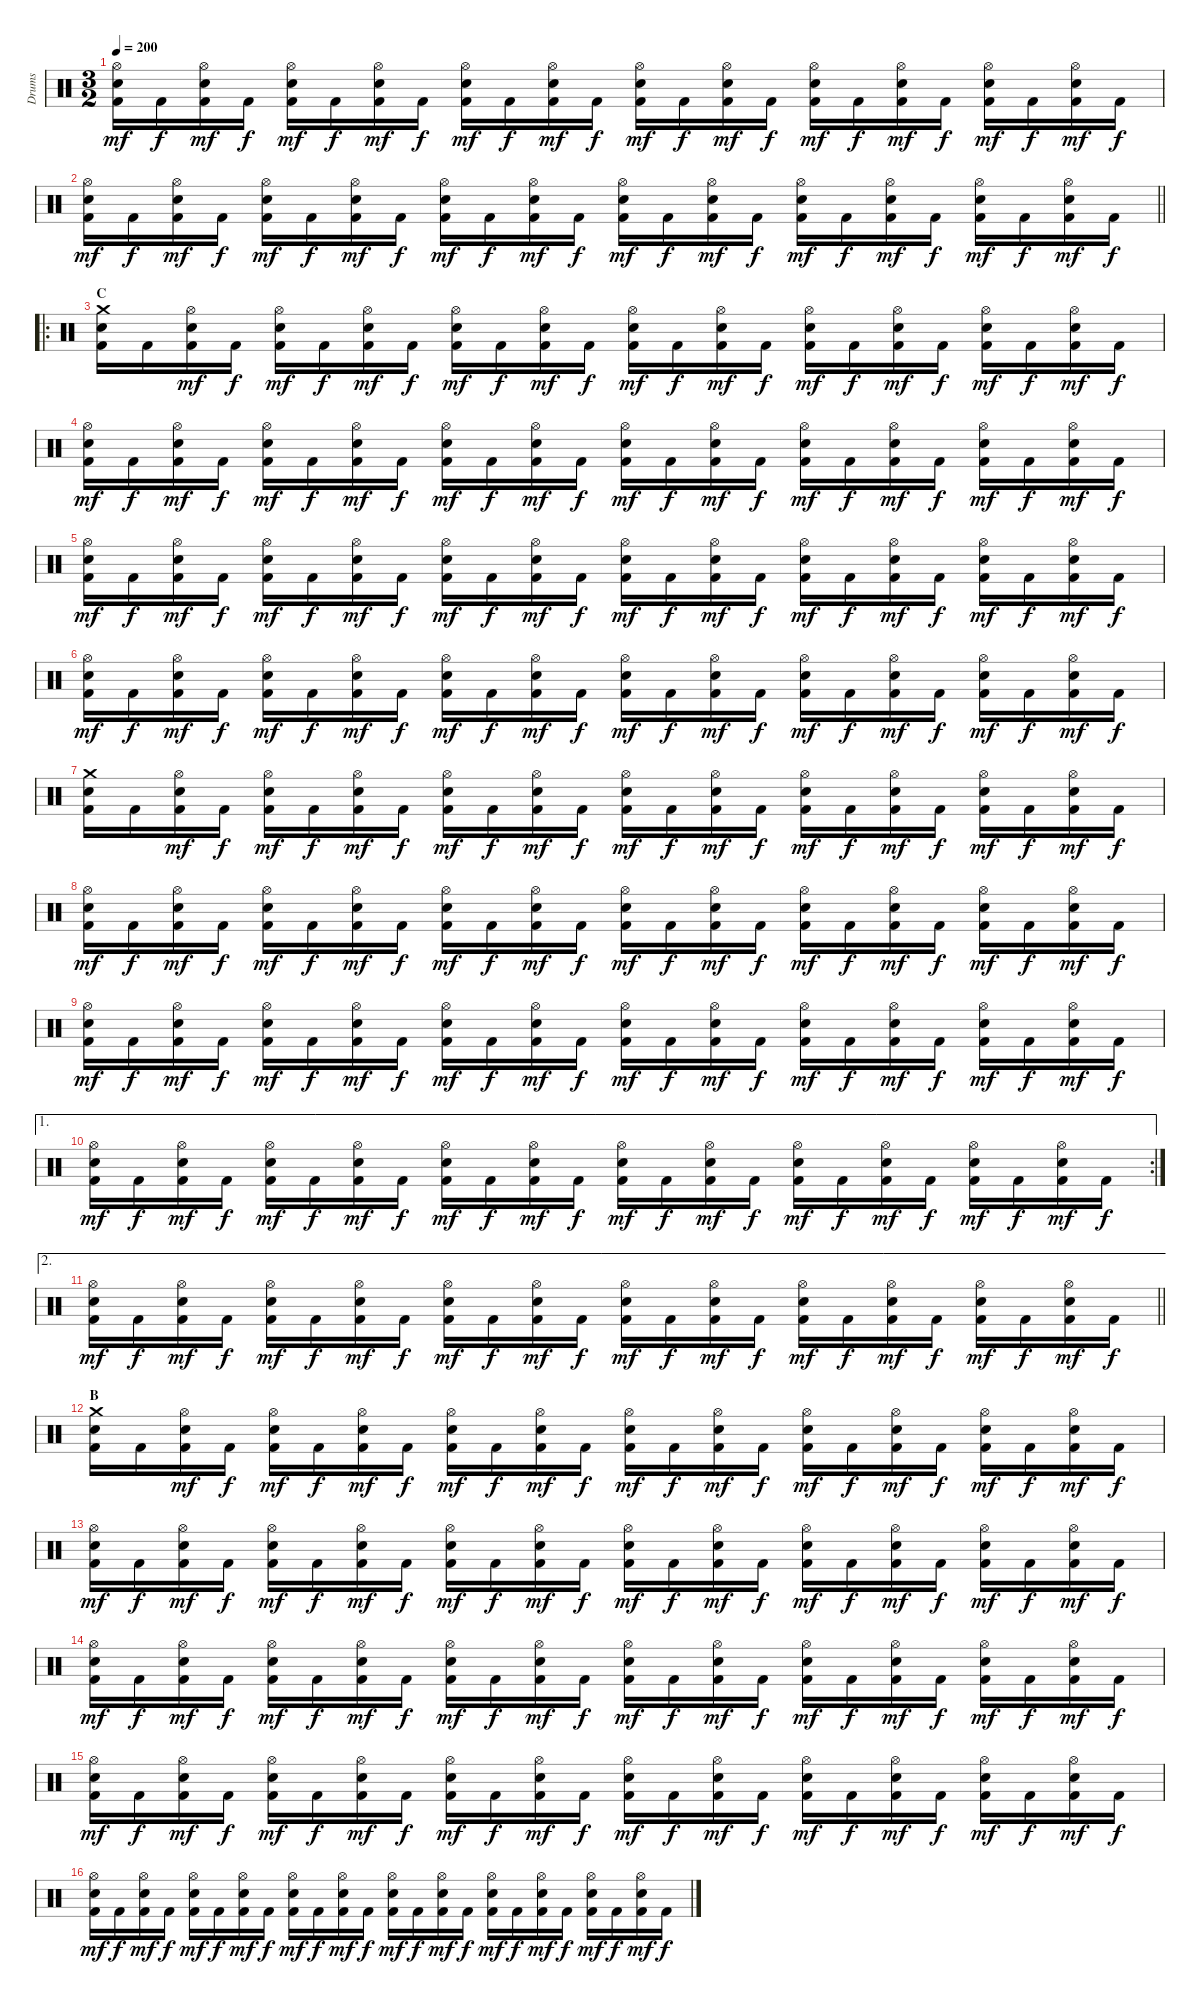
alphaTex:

\track ("Drums" "Drums") {instrument percussion}
\staff {score}
\articulation defaults
\ts (3 2)
\tempo 200
\clef neutral
\ks c
("Hi-Hat (open)" "Electric Snare (hit)" "Kick (hit) 2").16{dy mf} "Kick (hit) 2".16{dy f} ("Hi-Hat (open)" "Electric Snare (hit)" "Kick (hit) 2").16{dy mf} "Kick (hit) 2".16{dy f} ("Hi-Hat (open)" "Electric Snare (hit)" "Kick (hit) 2").16{dy mf} "Kick (hit) 2".16{dy f} ("Hi-Hat (open)" "Electric Snare (hit)" "Kick (hit) 2").16{dy mf} "Kick (hit) 2".16{dy f} ("Hi-Hat (open)" "Electric Snare (hit)" "Kick (hit) 2").16{dy mf} "Kick (hit) 2".16{dy f} ("Hi-Hat (open)" "Electric Snare (hit)" "Kick (hit) 2").16{dy mf} "Kick (hit) 2".16{dy f} ("Hi-Hat (open)" "Electric Snare (hit)" "Kick (hit) 2").16{dy mf} "Kick (hit) 2".16{dy f} ("Hi-Hat (open)" "Electric Snare (hit)" "Kick (hit) 2").16{dy mf} "Kick (hit) 2".16{dy f} ("Hi-Hat (open)" "Electric Snare (hit)" "Kick (hit) 2").16{dy mf} "Kick (hit) 2".16{dy f} ("Hi-Hat (open)" "Electric Snare (hit)" "Kick (hit) 2").16{dy mf} "Kick (hit) 2".16{dy f} ("Hi-Hat (open)" "Electric Snare (hit)" "Kick (hit) 2").16{dy mf} "Kick (hit) 2".16{dy f} ("Hi-Hat (open)" "Electric Snare (hit)" "Kick (hit) 2").16{dy mf} "Kick (hit) 2".16{dy f} |
\barLineRight lightlight
("Hi-Hat (open)" "Electric Snare (hit)" "Kick (hit) 2").16{dy mf} "Kick (hit) 2".16{dy f} ("Hi-Hat (open)" "Electric Snare (hit)" "Kick (hit) 2").16{dy mf} "Kick (hit) 2".16{dy f} ("Hi-Hat (open)" "Electric Snare (hit)" "Kick (hit) 2").16{dy mf} "Kick (hit) 2".16{dy f} ("Hi-Hat (open)" "Electric Snare (hit)" "Kick (hit) 2").16{dy mf} "Kick (hit) 2".16{dy f} ("Hi-Hat (open)" "Electric Snare (hit)" "Kick (hit) 2").16{dy mf} "Kick (hit) 2".16{dy f} ("Hi-Hat (open)" "Electric Snare (hit)" "Kick (hit) 2").16{dy mf} "Kick (hit) 2".16{dy f} ("Hi-Hat (open)" "Electric Snare (hit)" "Kick (hit) 2").16{dy mf} "Kick (hit) 2".16{dy f} ("Hi-Hat (open)" "Electric Snare (hit)" "Kick (hit) 2").16{dy mf} "Kick (hit) 2".16{dy f} ("Hi-Hat (open)" "Electric Snare (hit)" "Kick (hit) 2").16{dy mf} "Kick (hit) 2".16{dy f} ("Hi-Hat (open)" "Electric Snare (hit)" "Kick (hit) 2").16{dy mf} "Kick (hit) 2".16{dy f} ("Hi-Hat (open)" "Electric Snare (hit)" "Kick (hit) 2").16{dy mf} "Kick (hit) 2".16{dy f} ("Hi-Hat (open)" "Electric Snare (hit)" "Kick (hit) 2").16{dy mf} "Kick (hit) 2".16{dy f} |
\ro
\section ("" "C")
("Crash medium (hit)" "Electric Snare (hit)" "Kick (hit) 2").16 "Kick (hit) 2".16 ("Hi-Hat (open)" "Electric Snare (hit)" "Kick (hit) 2").16{dy mf} "Kick (hit) 2".16{dy f} ("Hi-Hat (open)" "Electric Snare (hit)" "Kick (hit) 2").16{dy mf} "Kick (hit) 2".16{dy f} ("Hi-Hat (open)" "Electric Snare (hit)" "Kick (hit) 2").16{dy mf} "Kick (hit) 2".16{dy f} ("Hi-Hat (open)" "Electric Snare (hit)" "Kick (hit) 2").16{dy mf} "Kick (hit) 2".16{dy f} ("Hi-Hat (open)" "Electric Snare (hit)" "Kick (hit) 2").16{dy mf} "Kick (hit) 2".16{dy f} ("Hi-Hat (open)" "Electric Snare (hit)" "Kick (hit) 2").16{dy mf} "Kick (hit) 2".16{dy f} ("Hi-Hat (open)" "Electric Snare (hit)" "Kick (hit) 2").16{dy mf} "Kick (hit) 2".16{dy f} ("Hi-Hat (open)" "Electric Snare (hit)" "Kick (hit) 2").16{dy mf} "Kick (hit) 2".16{dy f} ("Hi-Hat (open)" "Electric Snare (hit)" "Kick (hit) 2").16{dy mf} "Kick (hit) 2".16{dy f} ("Hi-Hat (open)" "Electric Snare (hit)" "Kick (hit) 2").16{dy mf} "Kick (hit) 2".16{dy f} ("Hi-Hat (open)" "Electric Snare (hit)" "Kick (hit) 2").16{dy mf} "Kick (hit) 2".16{dy f} |
("Hi-Hat (open)" "Electric Snare (hit)" "Kick (hit) 2").16{dy mf} "Kick (hit) 2".16{dy f} ("Hi-Hat (open)" "Electric Snare (hit)" "Kick (hit) 2").16{dy mf} "Kick (hit) 2".16{dy f} ("Hi-Hat (open)" "Electric Snare (hit)" "Kick (hit) 2").16{dy mf} "Kick (hit) 2".16{dy f} ("Hi-Hat (open)" "Electric Snare (hit)" "Kick (hit) 2").16{dy mf} "Kick (hit) 2".16{dy f} ("Hi-Hat (open)" "Electric Snare (hit)" "Kick (hit) 2").16{dy mf} "Kick (hit) 2".16{dy f} ("Hi-Hat (open)" "Electric Snare (hit)" "Kick (hit) 2").16{dy mf} "Kick (hit) 2".16{dy f} ("Hi-Hat (open)" "Electric Snare (hit)" "Kick (hit) 2").16{dy mf} "Kick (hit) 2".16{dy f} ("Hi-Hat (open)" "Electric Snare (hit)" "Kick (hit) 2").16{dy mf} "Kick (hit) 2".16{dy f} ("Hi-Hat (open)" "Electric Snare (hit)" "Kick (hit) 2").16{dy mf} "Kick (hit) 2".16{dy f} ("Hi-Hat (open)" "Electric Snare (hit)" "Kick (hit) 2").16{dy mf} "Kick (hit) 2".16{dy f} ("Hi-Hat (open)" "Electric Snare (hit)" "Kick (hit) 2").16{dy mf} "Kick (hit) 2".16{dy f} ("Hi-Hat (open)" "Electric Snare (hit)" "Kick (hit) 2").16{dy mf} "Kick (hit) 2".16{dy f} |
("Hi-Hat (open)" "Electric Snare (hit)" "Kick (hit) 2").16{dy mf} "Kick (hit) 2".16{dy f} ("Hi-Hat (open)" "Electric Snare (hit)" "Kick (hit) 2").16{dy mf} "Kick (hit) 2".16{dy f} ("Hi-Hat (open)" "Electric Snare (hit)" "Kick (hit) 2").16{dy mf} "Kick (hit) 2".16{dy f} ("Hi-Hat (open)" "Electric Snare (hit)" "Kick (hit) 2").16{dy mf} "Kick (hit) 2".16{dy f} ("Hi-Hat (open)" "Electric Snare (hit)" "Kick (hit) 2").16{dy mf} "Kick (hit) 2".16{dy f} ("Hi-Hat (open)" "Electric Snare (hit)" "Kick (hit) 2").16{dy mf} "Kick (hit) 2".16{dy f} ("Hi-Hat (open)" "Electric Snare (hit)" "Kick (hit) 2").16{dy mf} "Kick (hit) 2".16{dy f} ("Hi-Hat (open)" "Electric Snare (hit)" "Kick (hit) 2").16{dy mf} "Kick (hit) 2".16{dy f} ("Hi-Hat (open)" "Electric Snare (hit)" "Kick (hit) 2").16{dy mf} "Kick (hit) 2".16{dy f} ("Hi-Hat (open)" "Electric Snare (hit)" "Kick (hit) 2").16{dy mf} "Kick (hit) 2".16{dy f} ("Hi-Hat (open)" "Electric Snare (hit)" "Kick (hit) 2").16{dy mf} "Kick (hit) 2".16{dy f} ("Hi-Hat (open)" "Electric Snare (hit)" "Kick (hit) 2").16{dy mf} "Kick (hit) 2".16{dy f} |
("Hi-Hat (open)" "Electric Snare (hit)" "Kick (hit) 2").16{dy mf} "Kick (hit) 2".16{dy f} ("Hi-Hat (open)" "Electric Snare (hit)" "Kick (hit) 2").16{dy mf} "Kick (hit) 2".16{dy f} ("Hi-Hat (open)" "Electric Snare (hit)" "Kick (hit) 2").16{dy mf} "Kick (hit) 2".16{dy f} ("Hi-Hat (open)" "Electric Snare (hit)" "Kick (hit) 2").16{dy mf} "Kick (hit) 2".16{dy f} ("Hi-Hat (open)" "Electric Snare (hit)" "Kick (hit) 2").16{dy mf} "Kick (hit) 2".16{dy f} ("Hi-Hat (open)" "Electric Snare (hit)" "Kick (hit) 2").16{dy mf} "Kick (hit) 2".16{dy f} ("Hi-Hat (open)" "Electric Snare (hit)" "Kick (hit) 2").16{dy mf} "Kick (hit) 2".16{dy f} ("Hi-Hat (open)" "Electric Snare (hit)" "Kick (hit) 2").16{dy mf} "Kick (hit) 2".16{dy f} ("Hi-Hat (open)" "Electric Snare (hit)" "Kick (hit) 2").16{dy mf} "Kick (hit) 2".16{dy f} ("Hi-Hat (open)" "Electric Snare (hit)" "Kick (hit) 2").16{dy mf} "Kick (hit) 2".16{dy f} ("Hi-Hat (open)" "Electric Snare (hit)" "Kick (hit) 2").16{dy mf} "Kick (hit) 2".16{dy f} ("Hi-Hat (open)" "Electric Snare (hit)" "Kick (hit) 2").16{dy mf} "Kick (hit) 2".16{dy f} |
("Crash medium (hit)" "Electric Snare (hit)" "Kick (hit) 2").16 "Kick (hit) 2".16 ("Hi-Hat (open)" "Electric Snare (hit)" "Kick (hit) 2").16{dy mf} "Kick (hit) 2".16{dy f} ("Hi-Hat (open)" "Electric Snare (hit)" "Kick (hit) 2").16{dy mf} "Kick (hit) 2".16{dy f} ("Hi-Hat (open)" "Electric Snare (hit)" "Kick (hit) 2").16{dy mf} "Kick (hit) 2".16{dy f} ("Hi-Hat (open)" "Electric Snare (hit)" "Kick (hit) 2").16{dy mf} "Kick (hit) 2".16{dy f} ("Hi-Hat (open)" "Electric Snare (hit)" "Kick (hit) 2").16{dy mf} "Kick (hit) 2".16{dy f} ("Hi-Hat (open)" "Electric Snare (hit)" "Kick (hit) 2").16{dy mf} "Kick (hit) 2".16{dy f} ("Hi-Hat (open)" "Electric Snare (hit)" "Kick (hit) 2").16{dy mf} "Kick (hit) 2".16{dy f} ("Hi-Hat (open)" "Electric Snare (hit)" "Kick (hit) 2").16{dy mf} "Kick (hit) 2".16{dy f} ("Hi-Hat (open)" "Electric Snare (hit)" "Kick (hit) 2").16{dy mf} "Kick (hit) 2".16{dy f} ("Hi-Hat (open)" "Electric Snare (hit)" "Kick (hit) 2").16{dy mf} "Kick (hit) 2".16{dy f} ("Hi-Hat (open)" "Electric Snare (hit)" "Kick (hit) 2").16{dy mf} "Kick (hit) 2".16{dy f} |
("Hi-Hat (open)" "Electric Snare (hit)" "Kick (hit) 2").16{dy mf} "Kick (hit) 2".16{dy f} ("Hi-Hat (open)" "Electric Snare (hit)" "Kick (hit) 2").16{dy mf} "Kick (hit) 2".16{dy f} ("Hi-Hat (open)" "Electric Snare (hit)" "Kick (hit) 2").16{dy mf} "Kick (hit) 2".16{dy f} ("Hi-Hat (open)" "Electric Snare (hit)" "Kick (hit) 2").16{dy mf} "Kick (hit) 2".16{dy f} ("Hi-Hat (open)" "Electric Snare (hit)" "Kick (hit) 2").16{dy mf} "Kick (hit) 2".16{dy f} ("Hi-Hat (open)" "Electric Snare (hit)" "Kick (hit) 2").16{dy mf} "Kick (hit) 2".16{dy f} ("Hi-Hat (open)" "Electric Snare (hit)" "Kick (hit) 2").16{dy mf} "Kick (hit) 2".16{dy f} ("Hi-Hat (open)" "Electric Snare (hit)" "Kick (hit) 2").16{dy mf} "Kick (hit) 2".16{dy f} ("Hi-Hat (open)" "Electric Snare (hit)" "Kick (hit) 2").16{dy mf} "Kick (hit) 2".16{dy f} ("Hi-Hat (open)" "Electric Snare (hit)" "Kick (hit) 2").16{dy mf} "Kick (hit) 2".16{dy f} ("Hi-Hat (open)" "Electric Snare (hit)" "Kick (hit) 2").16{dy mf} "Kick (hit) 2".16{dy f} ("Hi-Hat (open)" "Electric Snare (hit)" "Kick (hit) 2").16{dy mf} "Kick (hit) 2".16{dy f} |
("Hi-Hat (open)" "Electric Snare (hit)" "Kick (hit) 2").16{dy mf} "Kick (hit) 2".16{dy f} ("Hi-Hat (open)" "Electric Snare (hit)" "Kick (hit) 2").16{dy mf} "Kick (hit) 2".16{dy f} ("Hi-Hat (open)" "Electric Snare (hit)" "Kick (hit) 2").16{dy mf} "Kick (hit) 2".16{dy f} ("Hi-Hat (open)" "Electric Snare (hit)" "Kick (hit) 2").16{dy mf} "Kick (hit) 2".16{dy f} ("Hi-Hat (open)" "Electric Snare (hit)" "Kick (hit) 2").16{dy mf} "Kick (hit) 2".16{dy f} ("Hi-Hat (open)" "Electric Snare (hit)" "Kick (hit) 2").16{dy mf} "Kick (hit) 2".16{dy f} ("Hi-Hat (open)" "Electric Snare (hit)" "Kick (hit) 2").16{dy mf} "Kick (hit) 2".16{dy f} ("Hi-Hat (open)" "Electric Snare (hit)" "Kick (hit) 2").16{dy mf} "Kick (hit) 2".16{dy f} ("Hi-Hat (open)" "Electric Snare (hit)" "Kick (hit) 2").16{dy mf} "Kick (hit) 2".16{dy f} ("Hi-Hat (open)" "Electric Snare (hit)" "Kick (hit) 2").16{dy mf} "Kick (hit) 2".16{dy f} ("Hi-Hat (open)" "Electric Snare (hit)" "Kick (hit) 2").16{dy mf} "Kick (hit) 2".16{dy f} ("Hi-Hat (open)" "Electric Snare (hit)" "Kick (hit) 2").16{dy mf} "Kick (hit) 2".16{dy f} |
\ae 1
\rc 2
("Hi-Hat (open)" "Electric Snare (hit)" "Kick (hit) 2").16{dy mf} "Kick (hit) 2".16{dy f} ("Hi-Hat (open)" "Electric Snare (hit)" "Kick (hit) 2").16{dy mf} "Kick (hit) 2".16{dy f} ("Hi-Hat (open)" "Electric Snare (hit)" "Kick (hit) 2").16{dy mf} "Kick (hit) 2".16{dy f} ("Hi-Hat (open)" "Electric Snare (hit)" "Kick (hit) 2").16{dy mf} "Kick (hit) 2".16{dy f} ("Hi-Hat (open)" "Electric Snare (hit)" "Kick (hit) 2").16{dy mf} "Kick (hit) 2".16{dy f} ("Hi-Hat (open)" "Electric Snare (hit)" "Kick (hit) 2").16{dy mf} "Kick (hit) 2".16{dy f} ("Hi-Hat (open)" "Electric Snare (hit)" "Kick (hit) 2").16{dy mf} "Kick (hit) 2".16{dy f} ("Hi-Hat (open)" "Electric Snare (hit)" "Kick (hit) 2").16{dy mf} "Kick (hit) 2".16{dy f} ("Hi-Hat (open)" "Electric Snare (hit)" "Kick (hit) 2").16{dy mf} "Kick (hit) 2".16{dy f} ("Hi-Hat (open)" "Electric Snare (hit)" "Kick (hit) 2").16{dy mf} "Kick (hit) 2".16{dy f} ("Hi-Hat (open)" "Electric Snare (hit)" "Kick (hit) 2").16{dy mf} "Kick (hit) 2".16{dy f} ("Hi-Hat (open)" "Electric Snare (hit)" "Kick (hit) 2").16{dy mf} "Kick (hit) 2".16{dy f} |
\ae 2
\barLineRight lightlight
("Hi-Hat (open)" "Electric Snare (hit)" "Kick (hit) 2").16{dy mf} "Kick (hit) 2".16{dy f} ("Hi-Hat (open)" "Electric Snare (hit)" "Kick (hit) 2").16{dy mf} "Kick (hit) 2".16{dy f} ("Hi-Hat (open)" "Electric Snare (hit)" "Kick (hit) 2").16{dy mf} "Kick (hit) 2".16{dy f} ("Hi-Hat (open)" "Electric Snare (hit)" "Kick (hit) 2").16{dy mf} "Kick (hit) 2".16{dy f} ("Hi-Hat (open)" "Electric Snare (hit)" "Kick (hit) 2").16{dy mf} "Kick (hit) 2".16{dy f} ("Hi-Hat (open)" "Electric Snare (hit)" "Kick (hit) 2").16{dy mf} "Kick (hit) 2".16{dy f} ("Hi-Hat (open)" "Electric Snare (hit)" "Kick (hit) 2").16{dy mf} "Kick (hit) 2".16{dy f} ("Hi-Hat (open)" "Electric Snare (hit)" "Kick (hit) 2").16{dy mf} "Kick (hit) 2".16{dy f} ("Hi-Hat (open)" "Electric Snare (hit)" "Kick (hit) 2").16{dy mf} "Kick (hit) 2".16{dy f} ("Hi-Hat (open)" "Electric Snare (hit)" "Kick (hit) 2").16{dy mf} "Kick (hit) 2".16{dy f} ("Hi-Hat (open)" "Electric Snare (hit)" "Kick (hit) 2").16{dy mf} "Kick (hit) 2".16{dy f} ("Hi-Hat (open)" "Electric Snare (hit)" "Kick (hit) 2").16{dy mf} "Kick (hit) 2".16{dy f} |
\section ("" "B")
("Crash medium (hit)" "Electric Snare (hit)" "Kick (hit) 2").16 "Kick (hit) 2".16 ("Hi-Hat (open)" "Electric Snare (hit)" "Kick (hit) 2").16{dy mf} "Kick (hit) 2".16{dy f} ("Hi-Hat (open)" "Electric Snare (hit)" "Kick (hit) 2").16{dy mf} "Kick (hit) 2".16{dy f} ("Hi-Hat (open)" "Electric Snare (hit)" "Kick (hit) 2").16{dy mf} "Kick (hit) 2".16{dy f} ("Hi-Hat (open)" "Electric Snare (hit)" "Kick (hit) 2").16{dy mf} "Kick (hit) 2".16{dy f} ("Hi-Hat (open)" "Electric Snare (hit)" "Kick (hit) 2").16{dy mf} "Kick (hit) 2".16{dy f} ("Hi-Hat (open)" "Electric Snare (hit)" "Kick (hit) 2").16{dy mf} "Kick (hit) 2".16{dy f} ("Hi-Hat (open)" "Electric Snare (hit)" "Kick (hit) 2").16{dy mf} "Kick (hit) 2".16{dy f} ("Hi-Hat (open)" "Electric Snare (hit)" "Kick (hit) 2").16{dy mf} "Kick (hit) 2".16{dy f} ("Hi-Hat (open)" "Electric Snare (hit)" "Kick (hit) 2").16{dy mf} "Kick (hit) 2".16{dy f} ("Hi-Hat (open)" "Electric Snare (hit)" "Kick (hit) 2").16{dy mf} "Kick (hit) 2".16{dy f} ("Hi-Hat (open)" "Electric Snare (hit)" "Kick (hit) 2").16{dy mf} "Kick (hit) 2".16{dy f} |
("Hi-Hat (open)" "Electric Snare (hit)" "Kick (hit) 2").16{dy mf} "Kick (hit) 2".16{dy f} ("Hi-Hat (open)" "Electric Snare (hit)" "Kick (hit) 2").16{dy mf} "Kick (hit) 2".16{dy f} ("Hi-Hat (open)" "Electric Snare (hit)" "Kick (hit) 2").16{dy mf} "Kick (hit) 2".16{dy f} ("Hi-Hat (open)" "Electric Snare (hit)" "Kick (hit) 2").16{dy mf} "Kick (hit) 2".16{dy f} ("Hi-Hat (open)" "Electric Snare (hit)" "Kick (hit) 2").16{dy mf} "Kick (hit) 2".16{dy f} ("Hi-Hat (open)" "Electric Snare (hit)" "Kick (hit) 2").16{dy mf} "Kick (hit) 2".16{dy f} ("Hi-Hat (open)" "Electric Snare (hit)" "Kick (hit) 2").16{dy mf} "Kick (hit) 2".16{dy f} ("Hi-Hat (open)" "Electric Snare (hit)" "Kick (hit) 2").16{dy mf} "Kick (hit) 2".16{dy f} ("Hi-Hat (open)" "Electric Snare (hit)" "Kick (hit) 2").16{dy mf} "Kick (hit) 2".16{dy f} ("Hi-Hat (open)" "Electric Snare (hit)" "Kick (hit) 2").16{dy mf} "Kick (hit) 2".16{dy f} ("Hi-Hat (open)" "Electric Snare (hit)" "Kick (hit) 2").16{dy mf} "Kick (hit) 2".16{dy f} ("Hi-Hat (open)" "Electric Snare (hit)" "Kick (hit) 2").16{dy mf} "Kick (hit) 2".16{dy f} |
("Hi-Hat (open)" "Electric Snare (hit)" "Kick (hit) 2").16{dy mf} "Kick (hit) 2".16{dy f} ("Hi-Hat (open)" "Electric Snare (hit)" "Kick (hit) 2").16{dy mf} "Kick (hit) 2".16{dy f} ("Hi-Hat (open)" "Electric Snare (hit)" "Kick (hit) 2").16{dy mf} "Kick (hit) 2".16{dy f} ("Hi-Hat (open)" "Electric Snare (hit)" "Kick (hit) 2").16{dy mf} "Kick (hit) 2".16{dy f} ("Hi-Hat (open)" "Electric Snare (hit)" "Kick (hit) 2").16{dy mf} "Kick (hit) 2".16{dy f} ("Hi-Hat (open)" "Electric Snare (hit)" "Kick (hit) 2").16{dy mf} "Kick (hit) 2".16{dy f} ("Hi-Hat (open)" "Electric Snare (hit)" "Kick (hit) 2").16{dy mf} "Kick (hit) 2".16{dy f} ("Hi-Hat (open)" "Electric Snare (hit)" "Kick (hit) 2").16{dy mf} "Kick (hit) 2".16{dy f} ("Hi-Hat (open)" "Electric Snare (hit)" "Kick (hit) 2").16{dy mf} "Kick (hit) 2".16{dy f} ("Hi-Hat (open)" "Electric Snare (hit)" "Kick (hit) 2").16{dy mf} "Kick (hit) 2".16{dy f} ("Hi-Hat (open)" "Electric Snare (hit)" "Kick (hit) 2").16{dy mf} "Kick (hit) 2".16{dy f} ("Hi-Hat (open)" "Electric Snare (hit)" "Kick (hit) 2").16{dy mf} "Kick (hit) 2".16{dy f} |
("Hi-Hat (open)" "Electric Snare (hit)" "Kick (hit) 2").16{dy mf} "Kick (hit) 2".16{dy f} ("Hi-Hat (open)" "Electric Snare (hit)" "Kick (hit) 2").16{dy mf} "Kick (hit) 2".16{dy f} ("Hi-Hat (open)" "Electric Snare (hit)" "Kick (hit) 2").16{dy mf} "Kick (hit) 2".16{dy f} ("Hi-Hat (open)" "Electric Snare (hit)" "Kick (hit) 2").16{dy mf} "Kick (hit) 2".16{dy f} ("Hi-Hat (open)" "Electric Snare (hit)" "Kick (hit) 2").16{dy mf} "Kick (hit) 2".16{dy f} ("Hi-Hat (open)" "Electric Snare (hit)" "Kick (hit) 2").16{dy mf} "Kick (hit) 2".16{dy f} ("Hi-Hat (open)" "Electric Snare (hit)" "Kick (hit) 2").16{dy mf} "Kick (hit) 2".16{dy f} ("Hi-Hat (open)" "Electric Snare (hit)" "Kick (hit) 2").16{dy mf} "Kick (hit) 2".16{dy f} ("Hi-Hat (open)" "Electric Snare (hit)" "Kick (hit) 2").16{dy mf} "Kick (hit) 2".16{dy f} ("Hi-Hat (open)" "Electric Snare (hit)" "Kick (hit) 2").16{dy mf} "Kick (hit) 2".16{dy f} ("Hi-Hat (open)" "Electric Snare (hit)" "Kick (hit) 2").16{dy mf} "Kick (hit) 2".16{dy f} ("Hi-Hat (open)" "Electric Snare (hit)" "Kick (hit) 2").16{dy mf} "Kick (hit) 2".16{dy f} |
("Hi-Hat (open)" "Electric Snare (hit)" "Kick (hit) 2").16{dy mf} "Kick (hit) 2".16{dy f} ("Hi-Hat (open)" "Electric Snare (hit)" "Kick (hit) 2").16{dy mf} "Kick (hit) 2".16{dy f} ("Hi-Hat (open)" "Electric Snare (hit)" "Kick (hit) 2").16{dy mf} "Kick (hit) 2".16{dy f} ("Hi-Hat (open)" "Electric Snare (hit)" "Kick (hit) 2").16{dy mf} "Kick (hit) 2".16{dy f} ("Hi-Hat (open)" "Electric Snare (hit)" "Kick (hit) 2").16{dy mf} "Kick (hit) 2".16{dy f} ("Hi-Hat (open)" "Electric Snare (hit)" "Kick (hit) 2").16{dy mf} "Kick (hit) 2".16{dy f} ("Hi-Hat (open)" "Electric Snare (hit)" "Kick (hit) 2").16{dy mf} "Kick (hit) 2".16{dy f} ("Hi-Hat (open)" "Electric Snare (hit)" "Kick (hit) 2").16{dy mf} "Kick (hit) 2".16{dy f} ("Hi-Hat (open)" "Electric Snare (hit)" "Kick (hit) 2").16{dy mf} "Kick (hit) 2".16{dy f} ("Hi-Hat (open)" "Electric Snare (hit)" "Kick (hit) 2").16{dy mf} "Kick (hit) 2".16{dy f} ("Hi-Hat (open)" "Electric Snare (hit)" "Kick (hit) 2").16{dy mf} "Kick (hit) 2".16{dy f} ("Hi-Hat (open)" "Electric Snare (hit)" "Kick (hit) 2").16{dy mf} "Kick (hit) 2".16{dy f}
